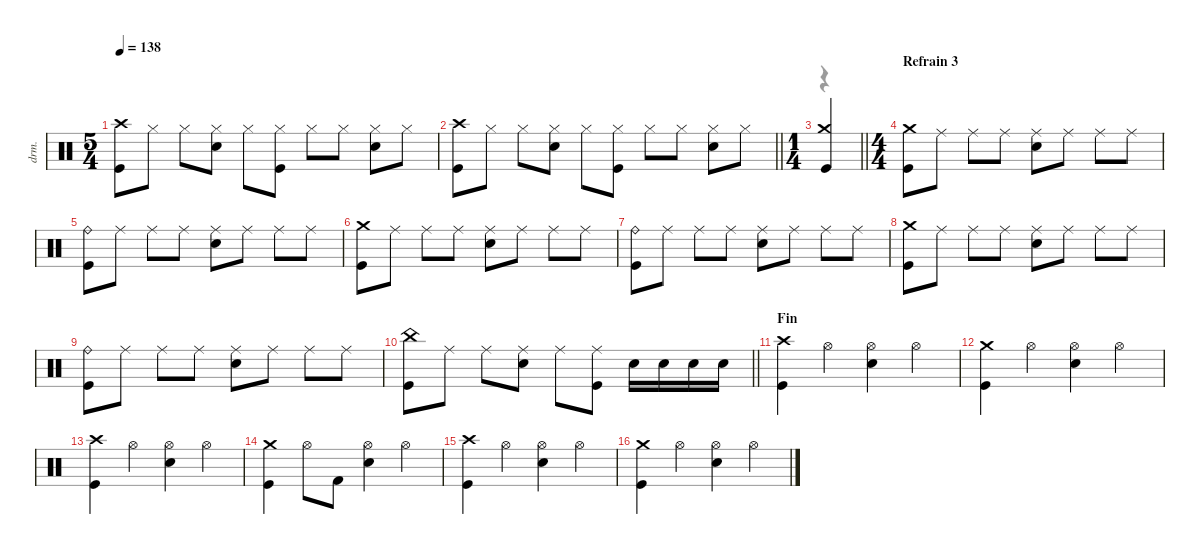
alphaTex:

\defaultSystemsLayout 4
\hideDynamics
\bracketExtendMode nobrackets
\track ("Percussions" "drm.") {instrument percussion}
\staff {score}
\articulation defaults
\voice
\ts (5 4)
\tempo 138
\clef neutral
\ks aminor
("Crash high (hit)" "Kick (hit)").8{dy f} "Hi-Hat (closed)".8 "Hi-Hat (closed)".8 ("Hi-Hat (closed)" "Snare (hit) 2").8 "Hi-Hat (closed)".8 ("Hi-Hat (closed)" "Kick (hit)").8 "Hi-Hat (closed)".8 "Hi-Hat (closed)".8 ("Hi-Hat (closed)" "Snare (hit) 2").8 "Hi-Hat (closed)".8 |
\barLineRight lightlight
("Crash high (hit)" "Kick (hit)").8 "Hi-Hat (closed)".8 "Hi-Hat (closed)".8 ("Hi-Hat (closed)" "Snare (hit) 2").8 "Hi-Hat (closed)".8 ("Hi-Hat (closed)" "Kick (hit)").8 "Hi-Hat (closed)".8 "Hi-Hat (closed)".8 ("Hi-Hat (closed)" "Snare (hit) 2").8 "Hi-Hat (closed)".8 |
\ts (1 4)
\beaming (8 2)
\barLineRight lightlight
("Kick (hit)" "Crash medium (hit)").4 |
\ts (4 4)
\beaming (8 2 2 2 2)
\section ("" "Refrain 3")
("Crash medium (hit)" "Kick (hit)").8 "Ride (middle)".8 "Ride (middle)".8 "Ride (middle)".8 ("Ride (middle)" "Snare (hit) 2").8 "Ride (middle)".8 "Ride (middle)".8 "Ride (middle)".8 |
("Ride (bell)" "Kick (hit)").8 "Ride (middle)".8 "Ride (middle)".8 "Ride (middle)".8 ("Ride (middle)" "Snare (hit) 2").8 "Ride (middle)".8 "Ride (middle)".8 "Ride (middle)".8 |
("Crash medium (hit)" "Kick (hit)").8 "Ride (middle)".8 "Ride (middle)".8 "Ride (middle)".8 ("Ride (middle)" "Snare (hit) 2").8 "Ride (middle)".8 "Ride (middle)".8 "Ride (middle)".8 |
("Ride (bell)" "Kick (hit)").8 "Ride (middle)".8 "Ride (middle)".8 "Ride (middle)".8 ("Ride (middle)" "Snare (hit) 2").8 "Ride (middle)".8 "Ride (middle)".8 "Ride (middle)".8 |
("Crash medium (hit)" "Kick (hit)").8 "Ride (middle)".8 "Ride (middle)".8 "Ride (middle)".8 ("Ride (middle)" "Snare (hit) 2").8 "Ride (middle)".8 "Ride (middle)".8 "Ride (middle)".8 |
("Ride (bell)" "Kick (hit)").8 "Ride (middle)".8 "Ride (middle)".8 "Ride (middle)".8 ("Ride (middle)" "Snare (hit) 2").8 "Ride (middle)".8 "Ride (middle)".8 "Ride (middle)".8 |
\barLineRight lightlight
("China (hit)" "Kick (hit)").8 "Ride (middle)".8 "Ride (middle)".8 ("Ride (middle)" "Snare (hit) 2").8 "Ride (middle)".8 ("Ride (middle)" "Kick (hit)").8 "Snare (hit) 2".16 "Snare (hit) 2".16 "Snare (hit) 2".16 "Snare (hit) 2".16 |
\section ("" "Fin")
("Crash high (hit)" "Kick (hit)").4 "Hi-Hat (open)".4 ("Hi-Hat (open)" "Snare (hit) 2").4 "Hi-Hat (open)".4 |
("Crash medium (hit)" "Kick (hit)").4 "Hi-Hat (open)".4 ("Hi-Hat (open)" "Snare (hit) 2").4 "Hi-Hat (open)".4 |
("Crash high (hit)" "Kick (hit)").4 "Hi-Hat (open)".4 ("Hi-Hat (open)" "Snare (hit) 2").4 "Hi-Hat (open)".4 |
("Crash medium (hit)" "Kick (hit)").4 "Hi-Hat (open)".8 "Kick (hit) 2".8 ("Hi-Hat (open)" "Snare (hit) 2").4 "Hi-Hat (open)".4 |
("Crash high (hit)" "Kick (hit)").4 "Hi-Hat (open)".4 ("Hi-Hat (open)" "Snare (hit) 2").4 "Hi-Hat (open)".4 |
("Crash medium (hit)" "Kick (hit)").4 "Hi-Hat (open)".4 ("Hi-Hat (open)" "Snare (hit) 2").4 "Hi-Hat (open)".4
\voice
\clef neutral
\ottava regular
\simile none
\ks aminor
|
\barLineRight lightlight
|
\barLineRight lightlight
r.4{dy mf} |
|
|
|
|
|
|
\barLineRight lightlight
|
|
|
|
|
|
